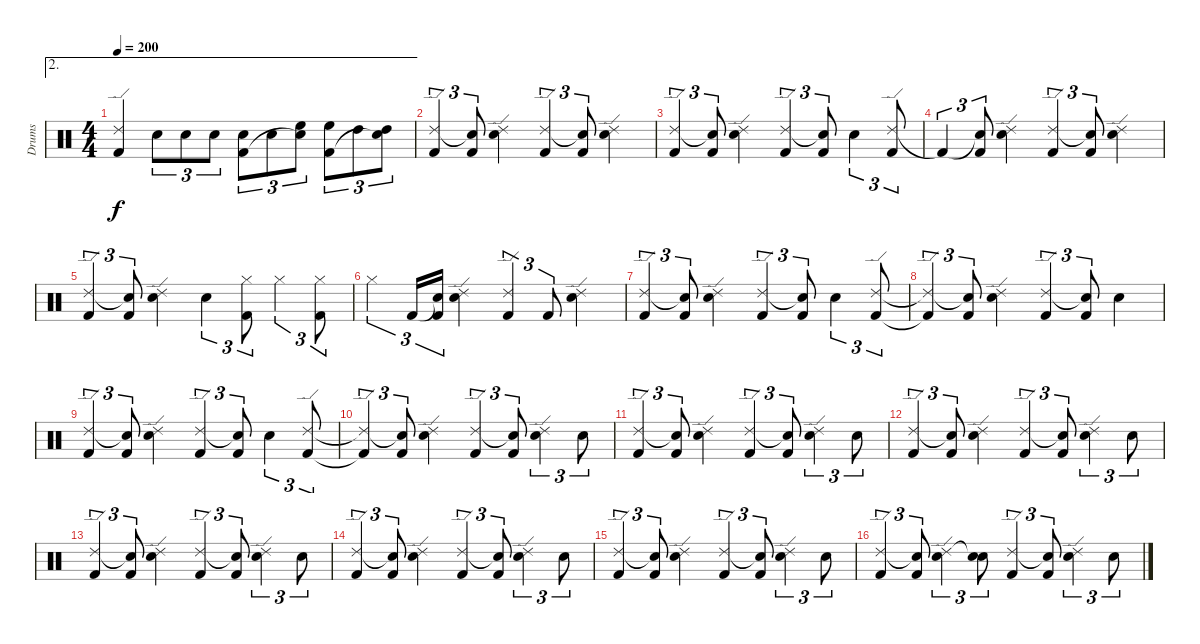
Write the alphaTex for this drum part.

\track ("Drums" "Drums") {instrument percussion}
\staff {score}
\articulation defaults
\ae 2
\ts (4 4)
\tempo 200
\clef neutral
\ks c
("Ride (edge) 2" "Kick (hit) 2").4{dy f} "Snare (hit) 2".8{tu (3 2)} "Snare (hit) 2".8{tu (3 2)} "Snare (hit) 2".8{tu (3 2)} ("Snare (hit) 2" "Kick (hit) 2").8{tu (3 2)} "Snare (hit) 2".8{tu (3 2)} ("High Floor Tom (hit)" "Snare (hit)"{t}).8{tu (3 2)} ("High Floor Tom (hit)" "Kick (hit) 2").8{tu (3 2)} "High Tom (hit)".8{tu (3 2)} ("High Tom (hit)" "Snare (hit)"{t}).8{tu (3 2)} |
("Ride (edge) 2" "Kick (hit) 2").4{tu (3 2)} ("Snare (hit)"{t} "Kick (hit) 2").8{tu (3 2)} ("Ride (edge) 2" "Snare (hit) 2").4 ("Ride (edge) 2" "Kick (hit) 2").4{tu (3 2)} ("Snare (hit)"{t} "Kick (hit) 2").8{tu (3 2)} ("Ride (edge) 2" "Snare (hit) 2").4 |
("Ride (edge) 2" "Kick (hit) 2").4{tu (3 2)} ("Snare (hit)"{t} "Kick (hit) 2").8{tu (3 2)} ("Ride (edge) 2" "Snare (hit) 2").4 ("Ride (edge) 2" "Kick (hit) 2").4{tu (3 2)} ("Snare (hit)"{t} "Kick (hit) 2").8{tu (3 2)} "Snare (hit) 2".4{tu (3 2)} ("Ride (edge) 2" "Kick (hit) 2").8{tu (3 2)} |
"Kick (hit) 2"{t}.4{tu (3 2)} ("Snare (hit)"{t} "Kick (hit) 2").8{tu (3 2)} ("Ride (edge) 2" "Snare (hit) 2").4 ("Ride (edge) 2" "Kick (hit) 2").4{tu (3 2)} ("Snare (hit)"{t} "Kick (hit) 2").8{tu (3 2)} ("Ride (edge) 2" "Snare (hit) 2").4 |
("Ride (edge) 2" "Kick (hit) 2").4{tu (3 2)} ("Snare (hit)"{t} "Kick (hit) 2").8{tu (3 2)} ("Ride (edge) 2" "Snare (hit) 2").4 "Snare (hit) 2".4{tu (3 2)} ("Hi-Hat (closed)" "Kick (hit) 2").8{tu (3 2)} "Hi-Hat (closed)".4{tu (3 2)} ("Hi-Hat (closed)" "Kick (hit) 2").8{tu (3 2)} |
"Hi-Hat (closed)".4{tu (3 2)} "Kick (hit) 2".16{tu (3 2)} ("Snare (hit)"{t} "Kick (hit) 2").16{tu (3 2)} ("Ride (edge) 2" "Snare (hit) 2").4 ("Ride (edge) 2" "Kick (hit) 2").4{tu (3 2)} "Kick (hit) 2".8{tu (3 2)} ("Ride (edge) 2" "Snare (hit) 2").4 |
("Ride (edge) 2" "Kick (hit) 2").4{tu (3 2)} ("Snare (hit)"{t} "Kick (hit) 2").8{tu (3 2)} ("Ride (edge) 2" "Snare (hit) 2").4 ("Ride (edge) 2" "Kick (hit) 2").4{tu (3 2)} ("Snare (hit)"{t} "Kick (hit) 2").8{tu (3 2)} "Snare (hit) 2".4{tu (3 2)} ("Ride (edge) 2" "Kick (hit) 2").8{tu (3 2)} |
("Ride (edge) 2"{t} "Kick (hit) 2"{t}).4{tu (3 2)} ("Snare (hit)"{t} "Kick (hit) 2").8{tu (3 2)} ("Ride (edge) 2" "Snare (hit) 2").4 ("Ride (edge) 2" "Kick (hit) 2").4{tu (3 2)} ("Snare (hit)"{t} "Kick (hit) 2").8{tu (3 2)} "Snare (hit) 2".4 |
("Ride (edge) 2" "Kick (hit) 2").4{tu (3 2)} ("Snare (hit)"{t} "Kick (hit) 2").8{tu (3 2)} ("Ride (edge) 2" "Snare (hit) 2").4 ("Ride (edge) 2" "Kick (hit) 2").4{tu (3 2)} ("Snare (hit)"{t} "Kick (hit) 2").8{tu (3 2)} "Snare (hit) 2".4{tu (3 2)} ("Ride (edge) 2" "Kick (hit) 2").8{tu (3 2)} |
("Ride (edge) 2"{t} "Kick (hit) 2"{t}).4{tu (3 2)} ("Snare (hit)"{t} "Kick (hit) 2").8{tu (3 2)} ("Ride (edge) 2" "Snare (hit) 2").4 ("Ride (edge) 2" "Kick (hit) 2").4{tu (3 2)} ("Snare (hit)"{t} "Kick (hit) 2").8{tu (3 2)} ("Ride (edge) 2" "Snare (hit) 2").4{tu (3 2)} "Snare (hit) 2".8{tu (3 2)} |
("Ride (edge) 2" "Kick (hit) 2").4{tu (3 2)} ("Snare (hit)"{t} "Kick (hit) 2").8{tu (3 2)} ("Ride (edge) 2" "Snare (hit) 2").4 ("Ride (edge) 2" "Kick (hit) 2").4{tu (3 2)} ("Snare (hit)"{t} "Kick (hit) 2").8{tu (3 2)} ("Ride (edge) 2" "Snare (hit) 2").4{tu (3 2)} "Snare (hit) 2".8{tu (3 2)} |
("Ride (edge) 2" "Kick (hit) 2").4{tu (3 2)} ("Snare (hit)"{t} "Kick (hit) 2").8{tu (3 2)} ("Ride (edge) 2" "Snare (hit) 2").4 ("Ride (edge) 2" "Kick (hit) 2").4{tu (3 2)} ("Snare (hit)"{t} "Kick (hit) 2").8{tu (3 2)} ("Ride (edge) 2" "Snare (hit) 2").4{tu (3 2)} "Snare (hit) 2".8{tu (3 2)} |
("Ride (edge) 2" "Kick (hit) 2").4{tu (3 2)} ("Snare (hit)"{t} "Kick (hit) 2").8{tu (3 2)} ("Ride (edge) 2" "Snare (hit) 2").4 ("Ride (edge) 2" "Kick (hit) 2").4{tu (3 2)} ("Snare (hit)"{t} "Kick (hit) 2").8{tu (3 2)} ("Ride (edge) 2" "Snare (hit) 2").4{tu (3 2)} "Snare (hit) 2".8{tu (3 2)} |
("Ride (edge) 2" "Kick (hit) 2").4{tu (3 2)} ("Snare (hit)"{t} "Kick (hit) 2").8{tu (3 2)} ("Ride (edge) 2" "Snare (hit) 2").4 ("Ride (edge) 2" "Kick (hit) 2").4{tu (3 2)} ("Snare (hit)"{t} "Kick (hit) 2").8{tu (3 2)} ("Ride (edge) 2" "Snare (hit) 2").4{tu (3 2)} "Snare (hit) 2".8{tu (3 2)} |
("Ride (edge) 2" "Kick (hit) 2").4{tu (3 2)} ("Snare (hit)"{t} "Kick (hit) 2").8{tu (3 2)} ("Ride (edge) 2" "Snare (hit) 2").4 ("Ride (edge) 2" "Kick (hit) 2").4{tu (3 2)} ("Snare (hit)"{t} "Kick (hit) 2").8{tu (3 2)} ("Ride (edge) 2" "Snare (hit) 2").4{tu (3 2)} "Snare (hit) 2".8{tu (3 2)} |
("Ride (edge) 2" "Kick (hit) 2").4{tu (3 2)} ("Snare (hit)"{t} "Kick (hit) 2").8{tu (3 2)} ("Ride (edge) 2" "Snare (hit) 2").4{tu (3 2)} ("Snare (hit)"{t} "Snare (hit) 2").8{tu (3 2)} ("Ride (edge) 2" "Kick (hit) 2").4{tu (3 2)} ("Snare (hit)"{t} "Kick (hit) 2").8{tu (3 2)} ("Ride (edge) 2" "Snare (hit) 2").4{tu (3 2)} "Snare (hit) 2".8{tu (3 2)}
